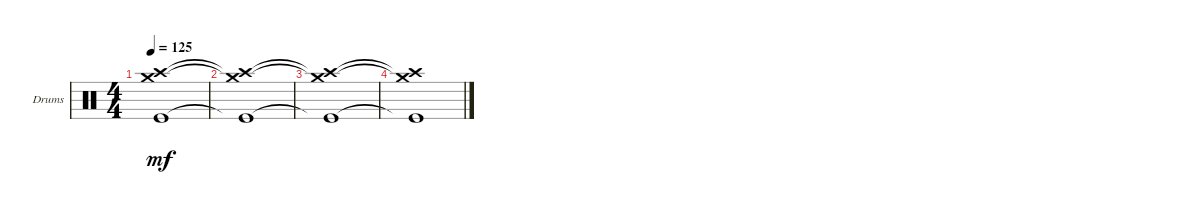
\bracketExtendMode groupsimilarinstruments
\firstSystemTrackNameOrientation horizontal
\otherSystemsTrackNameOrientation horizontal
\track ("Drums (chad ...)" "Drums") {instrument percussion}
\staff {score}
\articulation defaults
\ts (4 4)
\tempo 125
\clef neutral
\ks c
("Crash medium (hit)" "Crash high (hit)" "Kick (hit)").1{dy mf} |
("Crash medium (hit)"{t} "Crash high (hit)"{t} "Kick (hit)"{t}).1 |
("Crash medium (hit)"{t} "Crash high (hit)"{t} "Kick (hit)"{t}).1 |
("Crash medium (hit)"{t} "Crash high (hit)"{t} "Kick (hit)"{t}).1
